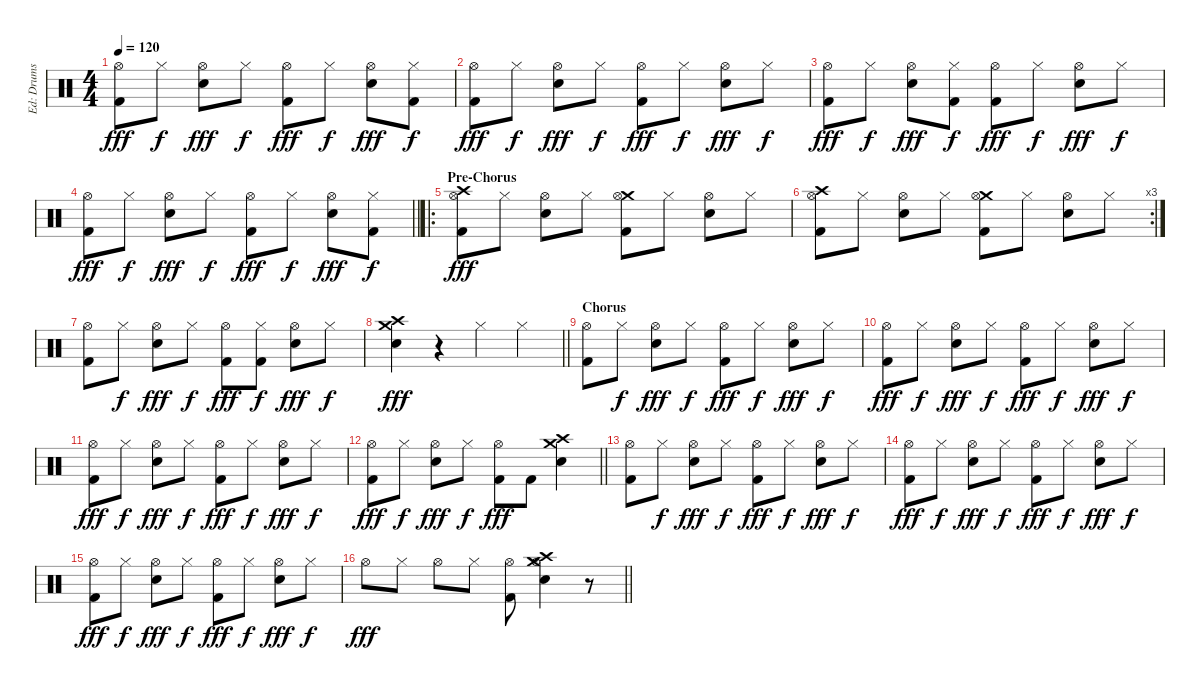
\track ("Ed: Drums" "Ed: Drums") {instrument percussion}
\staff {score}
\articulation defaults
\ts (4 4)
\tempo 120
\clef neutral
\ks c
("Hi-Hat (open)" "Kick (hit) 2").8{dy fff} "Hi-Hat (closed)".8{dy f} ("Hi-Hat (open)" "Electric Snare (hit)").8{dy fff} "Hi-Hat (closed)".8{dy f} ("Hi-Hat (open)" "Kick (hit) 2").8{dy fff} "Hi-Hat (closed)".8{dy f} ("Hi-Hat (open)" "Electric Snare (hit)").8{dy fff} ("Hi-Hat (closed)" "Kick (hit) 2").8{dy f} |
("Hi-Hat (open)" "Kick (hit) 2").8{dy fff} "Hi-Hat (closed)".8{dy f} ("Hi-Hat (open)" "Electric Snare (hit)").8{dy fff} "Hi-Hat (closed)".8{dy f} ("Hi-Hat (open)" "Kick (hit) 2").8{dy fff} "Hi-Hat (closed)".8{dy f} ("Hi-Hat (open)" "Electric Snare (hit)").8{dy fff} "Hi-Hat (closed)".8{dy f} |
("Hi-Hat (open)" "Kick (hit) 2").8{dy fff} "Hi-Hat (closed)".8{dy f} ("Hi-Hat (open)" "Electric Snare (hit)").8{dy fff} ("Hi-Hat (closed)" "Kick (hit) 2").8{dy f} ("Hi-Hat (open)" "Kick (hit) 2").8{dy fff} "Hi-Hat (closed)".8{dy f} ("Hi-Hat (open)" "Electric Snare (hit)").8{dy fff} "Hi-Hat (closed)".8{dy f} |
\barLineRight lightlight
("Hi-Hat (open)" "Kick (hit) 2").8{dy fff} "Hi-Hat (closed)".8{dy f} ("Hi-Hat (open)" "Electric Snare (hit)").8{dy fff} "Hi-Hat (closed)".8{dy f} ("Hi-Hat (open)" "Kick (hit) 2").8{dy fff} "Hi-Hat (closed)".8{dy f} ("Hi-Hat (open)" "Electric Snare (hit)").8{dy fff} ("Hi-Hat (closed)" "Kick (hit) 2").8{dy f} |
\ro
\section ("" "Pre-Chorus")
("Crash high (hit)" "Hi-Hat (open)" "Kick (hit) 2").8{dy fff} "Hi-Hat (closed)".8 ("Hi-Hat (open)" "Electric Snare (hit)").8 "Hi-Hat (closed)".8 ("Crash medium (hit)" "Hi-Hat (open)" "Kick (hit) 2").8 "Hi-Hat (closed)".8 ("Hi-Hat (open)" "Electric Snare (hit)").8 "Hi-Hat (closed)".8 |
\rc 3
("Crash high (hit)" "Hi-Hat (open)" "Kick (hit) 2").8 "Hi-Hat (closed)".8 ("Hi-Hat (open)" "Electric Snare (hit)").8 "Hi-Hat (closed)".8 ("Crash medium (hit)" "Hi-Hat (open)" "Kick (hit) 2").8 "Hi-Hat (closed)".8 ("Hi-Hat (open)" "Electric Snare (hit)").8 "Hi-Hat (closed)".8 |
("Hi-Hat (open)" "Kick (hit) 2").8 "Hi-Hat (closed)".8{dy f} ("Hi-Hat (open)" "Electric Snare (hit)").8{dy fff} "Hi-Hat (closed)".8{dy f} ("Hi-Hat (open)" "Kick (hit) 2").8{dy fff} ("Hi-Hat (closed)" "Kick (hit) 2").8{dy f} ("Hi-Hat (open)" "Electric Snare (hit)").8{dy fff} "Hi-Hat (closed)".8{dy f} |
\barLineRight lightlight
("Crash high (hit)" "Crash medium (hit)" "Electric Snare (hit)").4{dy fff} r.4 "Hi-Hat (closed)".4 "Hi-Hat (closed)".4 |
\section ("" "Chorus")
("Hi-Hat (open)" "Kick (hit) 2").8 "Hi-Hat (closed)".8{dy f} ("Hi-Hat (open)" "Electric Snare (hit)").8{dy fff} "Hi-Hat (closed)".8{dy f} ("Hi-Hat (open)" "Kick (hit) 2").8{dy fff} "Hi-Hat (closed)".8{dy f} ("Hi-Hat (open)" "Electric Snare (hit)").8{dy fff} "Hi-Hat (closed)".8{dy f} |
("Hi-Hat (open)" "Kick (hit) 2").8{dy fff} "Hi-Hat (closed)".8{dy f} ("Hi-Hat (open)" "Electric Snare (hit)").8{dy fff} "Hi-Hat (closed)".8{dy f} ("Hi-Hat (open)" "Kick (hit) 2").8{dy fff} "Hi-Hat (closed)".8{dy f} ("Hi-Hat (open)" "Electric Snare (hit)").8{dy fff} "Hi-Hat (closed)".8{dy f} |
("Hi-Hat (open)" "Kick (hit) 2").8{dy fff} "Hi-Hat (closed)".8{dy f} ("Hi-Hat (open)" "Electric Snare (hit)").8{dy fff} "Hi-Hat (closed)".8{dy f} ("Hi-Hat (open)" "Kick (hit) 2").8{dy fff} "Hi-Hat (closed)".8{dy f} ("Hi-Hat (open)" "Electric Snare (hit)").8{dy fff} "Hi-Hat (closed)".8{dy f} |
\barLineRight lightlight
("Hi-Hat (open)" "Kick (hit) 2").8{dy fff} "Hi-Hat (closed)".8{dy f} ("Hi-Hat (open)" "Electric Snare (hit)").8{dy fff} "Hi-Hat (closed)".8{dy f} ("Hi-Hat (open)" "Kick (hit) 2").8{dy fff} "Kick (hit) 2".8 ("Crash high (hit)" "Crash medium (hit)" "Electric Snare (hit)").4 |
("Hi-Hat (open)" "Kick (hit) 2").8 "Hi-Hat (closed)".8{dy f} ("Hi-Hat (open)" "Electric Snare (hit)").8{dy fff} "Hi-Hat (closed)".8{dy f} ("Hi-Hat (open)" "Kick (hit) 2").8{dy fff} "Hi-Hat (closed)".8{dy f} ("Hi-Hat (open)" "Electric Snare (hit)").8{dy fff} "Hi-Hat (closed)".8{dy f} |
("Hi-Hat (open)" "Kick (hit) 2").8{dy fff} "Hi-Hat (closed)".8{dy f} ("Hi-Hat (open)" "Electric Snare (hit)").8{dy fff} "Hi-Hat (closed)".8{dy f} ("Hi-Hat (open)" "Kick (hit) 2").8{dy fff} "Hi-Hat (closed)".8{dy f} ("Hi-Hat (open)" "Electric Snare (hit)").8{dy fff} "Hi-Hat (closed)".8{dy f} |
("Hi-Hat (open)" "Kick (hit) 2").8{dy fff} "Hi-Hat (closed)".8{dy f} ("Hi-Hat (open)" "Electric Snare (hit)").8{dy fff} "Hi-Hat (closed)".8{dy f} ("Hi-Hat (open)" "Kick (hit) 2").8{dy fff} "Hi-Hat (closed)".8{dy f} ("Hi-Hat (open)" "Electric Snare (hit)").8{dy fff} "Hi-Hat (closed)".8{dy f} |
\barLineRight lightlight "Hi-Hat (open)".8{dy fff} "Hi-Hat (closed)".8 "Hi-Hat (open)".8 "Hi-Hat (closed)".8
("Hi-Hat (open)" "Kick (hit) 2").8 ("Crash medium (hit)" "Crash high (hit)" "Hi-Hat (open)" "Electric Snare (hit)").4 r.8
